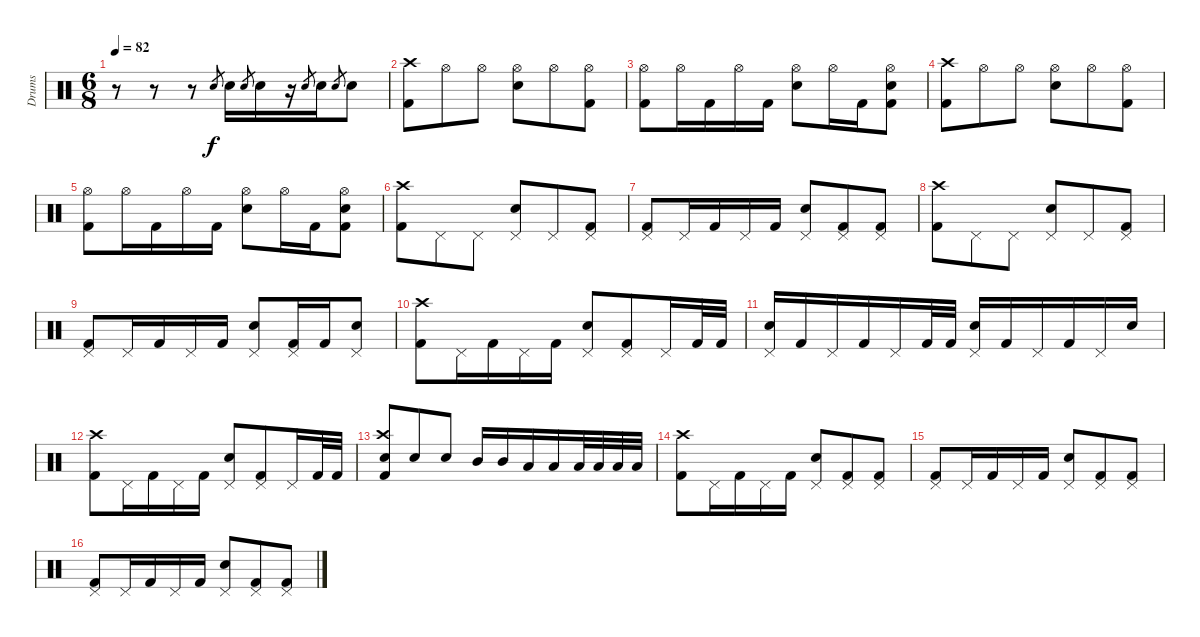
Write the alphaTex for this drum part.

\track ("Drums" "Drums") {instrument percussion}
\staff {score}
\articulation defaults
\ts (6 8)
\tempo 82
\clef neutral
\ks c
r.8{dy f} r.8 r.8 "Electric Snare (hit)"{sl}.8{gr} "Electric Snare (hit)".16 "Electric Snare (hit)"{sl}.8{gr} "Electric Snare (hit)".16 r.16 "Electric Snare (hit)"{sl}.8{gr} "Electric Snare (hit)".16 "Electric Snare (hit)"{sl}.8{gr} "Electric Snare (hit)".8 |
("Crash high (hit)" "Kick (hit) 2").8 "Hi-Hat (open)".8 "Hi-Hat (open)".8 ("Hi-Hat (open)" "Electric Snare (hit)").8 "Hi-Hat (open)".8 ("Hi-Hat (open)" "Kick (hit) 2").8 |
("Hi-Hat (open)" "Kick (hit) 2").8 "Hi-Hat (open)".16 "Kick (hit) 2".16 "Hi-Hat (open)".16 "Kick (hit) 2".16 ("Hi-Hat (open)" "Electric Snare (hit)").8 "Hi-Hat (open)".16 "Kick (hit) 2".16 ("Hi-Hat (open)" "Electric Snare (hit)" "Kick (hit) 2").8 |
("Crash high (hit)" "Kick (hit) 2").8 "Hi-Hat (open)".8 "Hi-Hat (open)".8 ("Hi-Hat (open)" "Electric Snare (hit)").8 "Hi-Hat (open)".8 ("Hi-Hat (open)" "Kick (hit) 2").8 |
("Hi-Hat (open)" "Kick (hit) 2").8 "Hi-Hat (open)".16 "Kick (hit) 2".16 "Hi-Hat (open)".16 "Kick (hit) 2".16 ("Hi-Hat (open)" "Electric Snare (hit)").8 "Hi-Hat (open)".16 "Kick (hit) 2".16 ("Hi-Hat (open)" "Electric Snare (hit)" "Kick (hit) 2").8 |
("Crash high (hit)" "Kick (hit) 2").8 "Pedal Hi-Hat (hit)".8 "Pedal Hi-Hat (hit)".8 ("Pedal Hi-Hat (hit)" "Electric Snare (hit)").8 "Pedal Hi-Hat (hit)".8 ("Pedal Hi-Hat (hit)" "Kick (hit) 2").8 |
("Pedal Hi-Hat (hit)" "Kick (hit) 2").8 "Pedal Hi-Hat (hit)".16 "Kick (hit) 2".16 "Pedal Hi-Hat (hit)".16 "Kick (hit) 2".16 ("Pedal Hi-Hat (hit)" "Electric Snare (hit)").8 ("Pedal Hi-Hat (hit)" "Kick (hit) 2").8 ("Pedal Hi-Hat (hit)" "Kick (hit) 2").8 |
("Crash high (hit)" "Kick (hit) 2").8 "Pedal Hi-Hat (hit)".8 "Pedal Hi-Hat (hit)".8 ("Pedal Hi-Hat (hit)" "Electric Snare (hit)").8 "Pedal Hi-Hat (hit)".8 ("Pedal Hi-Hat (hit)" "Kick (hit) 2").8 |
("Pedal Hi-Hat (hit)" "Kick (hit) 2").8 "Pedal Hi-Hat (hit)".16 "Kick (hit) 2".16 "Pedal Hi-Hat (hit)".16 "Kick (hit) 2".16 ("Pedal Hi-Hat (hit)" "Electric Snare (hit)").8 ("Pedal Hi-Hat (hit)" "Kick (hit) 2").16 "Kick (hit) 2".16 ("Pedal Hi-Hat (hit)" "Electric Snare (hit)").8 |
("Crash high (hit)" "Kick (hit) 2").8 "Pedal Hi-Hat (hit)".16 "Kick (hit) 2".16 "Pedal Hi-Hat (hit)".16 "Kick (hit) 2".16 ("Pedal Hi-Hat (hit)" "Electric Snare (hit)").8 ("Pedal Hi-Hat (hit)" "Kick (hit) 2").8 "Pedal Hi-Hat (hit)".16 "Kick (hit) 2".32 "Kick (hit) 2".32 |
("Pedal Hi-Hat (hit)" "Electric Snare (hit)").16 "Kick (hit) 2".16 "Pedal Hi-Hat (hit)".16 "Kick (hit) 2".16 "Pedal Hi-Hat (hit)".16 "Kick (hit) 2".32 "Kick (hit) 2".32 ("Pedal Hi-Hat (hit)" "Electric Snare (hit)").16 "Kick (hit) 2".16 "Pedal Hi-Hat (hit)".16 "Kick (hit) 2".16 "Pedal Hi-Hat (hit)".16 "Electric Snare (hit)".16 |
("Crash high (hit)" "Kick (hit) 2").8 "Pedal Hi-Hat (hit)".16 "Kick (hit) 2".16 "Pedal Hi-Hat (hit)".16 "Kick (hit) 2".16 ("Pedal Hi-Hat (hit)" "Electric Snare (hit)").8 ("Pedal Hi-Hat (hit)" "Kick (hit) 2").8 "Pedal Hi-Hat (hit)".16 "Kick (hit) 2".32 "Kick (hit) 2".32 |
("Crash high (hit)" "Electric Snare (hit)" "Kick (hit) 2").8 "Electric Snare (hit)".8 "Electric Snare (hit)".8 "Mid Tom (hit)".16 "Mid Tom (hit)".16 "Low Tom (hit)".16 "Low Tom (hit)".16 "Low Tom (hit)".32 "Low Tom (hit)".32 "Low Tom (hit)".32 "Low Tom (hit)".32 |
("Crash high (hit)" "Kick (hit) 2").8 "Pedal Hi-Hat (hit)".16 "Kick (hit) 2".16 "Pedal Hi-Hat (hit)".16 "Kick (hit) 2".16 ("Pedal Hi-Hat (hit)" "Electric Snare (hit)").8 ("Pedal Hi-Hat (hit)" "Kick (hit) 2").8 ("Pedal Hi-Hat (hit)" "Kick (hit) 2").8 |
("Pedal Hi-Hat (hit)" "Kick (hit) 2").8 "Pedal Hi-Hat (hit)".16 "Kick (hit) 2".16 "Pedal Hi-Hat (hit)".16 "Kick (hit) 2".16 ("Pedal Hi-Hat (hit)" "Electric Snare (hit)").8 ("Pedal Hi-Hat (hit)" "Kick (hit) 2").8 ("Pedal Hi-Hat (hit)" "Kick (hit) 2").8 |
("Pedal Hi-Hat (hit)" "Kick (hit) 2").8 "Pedal Hi-Hat (hit)".16 "Kick (hit) 2".16 "Pedal Hi-Hat (hit)".16 "Kick (hit) 2".16 ("Pedal Hi-Hat (hit)" "Electric Snare (hit)").8 ("Pedal Hi-Hat (hit)" "Kick (hit) 2").8 ("Pedal Hi-Hat (hit)" "Kick (hit) 2").8
